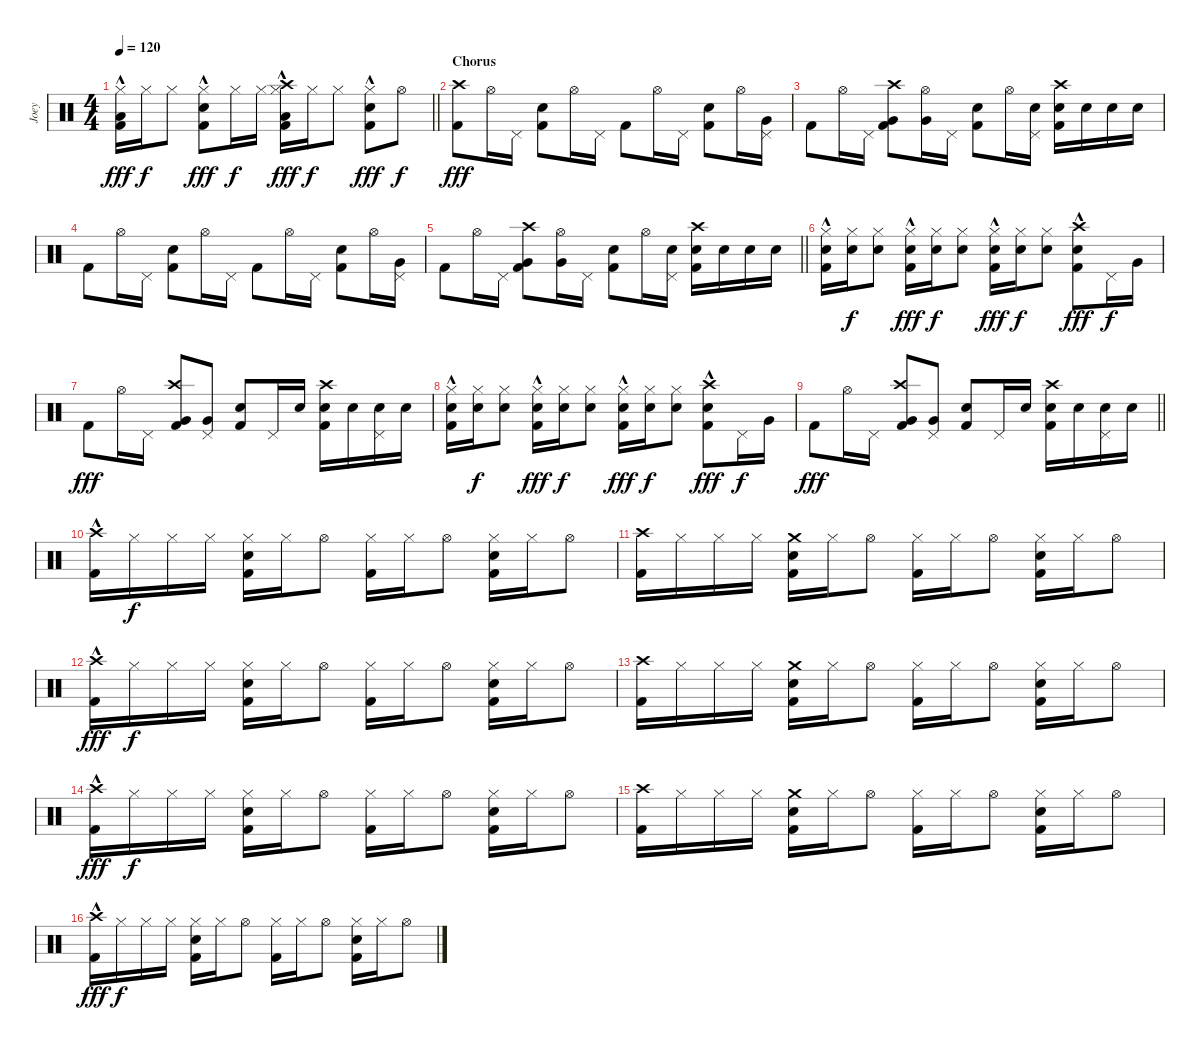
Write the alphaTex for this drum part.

\track ("Joey" "Joey") {instrument percussion}
\staff {score}
\articulation defaults
\ts (4 4)
\tempo 120
\clef neutral
\barLineRight lightlight
\ks c
("Hi-Hat (closed)"{hac} "Low Floor Tom (hit)" "Kick (hit) 2"{hac}).16{dy fff} "Hi-Hat (closed)".16{dy f} "Hi-Hat (closed)".8 ("Hi-Hat (closed)" "Electric Snare (hit)" "Kick (hit) 2"{hac}).8{dy fff} "Hi-Hat (closed)".16{dy f} "Hi-Hat (closed)".16 ("Crash high (hit)" "Hi-Hat (closed)" "Low Floor Tom (hit)" "Kick (hit) 2"{hac}).16{dy fff} "Hi-Hat (closed)".16{dy f} "Hi-Hat (closed)".8 ("Hi-Hat (closed)" "Electric Snare (hit)"{hac} "Kick (hit) 2"{hac}).8{dy fff} "Hi-Hat (open)".8{dy f} |
\section ("" "Chorus")
("Crash high (hit)" "Kick (hit) 2").8{dy fff} "Hi-Hat (open)".16 "Pedal Hi-Hat (hit)".16 ("Electric Snare (hit)" "Kick (hit) 2").8 "Hi-Hat (open)".16 "Pedal Hi-Hat (hit)".16 "Kick (hit) 2".8 "Hi-Hat (open)".16 "Pedal Hi-Hat (hit)".16 ("Electric Snare (hit)" "Kick (hit) 2").8 "Hi-Hat (open)".16 ("Pedal Hi-Hat (hit)" "Very Low Tom (hit)").16 |
"Kick (hit) 2".8 "Hi-Hat (open)".16 "Pedal Hi-Hat (hit)".16 ("Crash high (hit)" "Very Low Tom (hit)" "Kick (hit) 2").8 ("Hi-Hat (open)" "Very Low Tom (hit)").16 "Pedal Hi-Hat (hit)".16 ("Electric Snare (hit)" "Kick (hit) 2").8 "Hi-Hat (open)".16 ("Pedal Hi-Hat (hit)" "Electric Snare (hit)").16 ("Crash high (hit)" "Electric Snare (hit)" "Kick (hit) 2").16 "Electric Snare (hit)".16 "Electric Snare (hit)".16 "Electric Snare (hit)".16 |
"Kick (hit) 2".8 "Hi-Hat (open)".16 "Pedal Hi-Hat (hit)".16 ("Electric Snare (hit)" "Kick (hit) 2").8 "Hi-Hat (open)".16 "Pedal Hi-Hat (hit)".16 "Kick (hit) 2".8 "Hi-Hat (open)".16 "Pedal Hi-Hat (hit)".16 ("Electric Snare (hit)" "Kick (hit) 2").8 "Hi-Hat (open)".16 ("Pedal Hi-Hat (hit)" "Very Low Tom (hit)").16 |
\barLineRight lightlight "Kick (hit) 2".8 "Hi-Hat (open)".16 "Pedal Hi-Hat (hit)".16
("Crash high (hit)" "Very Low Tom (hit)" "Kick (hit) 2").8 ("Hi-Hat (open)" "Very Low Tom (hit)").16 "Pedal Hi-Hat (hit)".16 ("Electric Snare (hit)" "Kick (hit) 2").8 "Hi-Hat (open)".16 ("Pedal Hi-Hat (hit)" "Electric Snare (hit)").16 ("Crash high (hit)" "Electric Snare (hit)" "Kick (hit) 2").16 "Electric Snare (hit)".16 "Electric Snare (hit)".16 "Electric Snare (hit)".16 |
\section ("" "")
("Hi-Hat (closed)"{hac} "Electric Snare (hit)"{hac} "Kick (hit) 2").16 ("Hi-Hat (closed)" "Electric Snare (hit)").16{dy f} ("Hi-Hat (closed)" "Electric Snare (hit)").8 ("Hi-Hat (closed)"{hac} "Electric Snare (hit)"{hac} "Kick (hit) 2").16{dy fff} ("Hi-Hat (closed)" "Electric Snare (hit)").16{dy f} ("Hi-Hat (closed)" "Electric Snare (hit)").8 ("Hi-Hat (closed)"{hac} "Electric Snare (hit)"{hac} "Kick (hit) 2").16{dy fff} ("Hi-Hat (closed)" "Electric Snare (hit)").16{dy f} ("Hi-Hat (closed)" "Electric Snare (hit)").8 ("Crash high (hit)"{hac} "Electric Snare (hit)"{hac} "Kick (hit) 2").8{dy fff} "Pedal Hi-Hat (hit)".16{dy f} "Very Low Tom (hit)".16 |
"Kick (hit) 2".8{dy fff} "Hi-Hat (open)".16 "Pedal Hi-Hat (hit)".16 ("Crash high (hit)" "Very Low Tom (hit)" "Kick (hit) 2").8 ("Pedal Hi-Hat (hit)" "Very Low Tom (hit)").8 ("Electric Snare (hit)" "Kick (hit) 2").8 "Pedal Hi-Hat (hit)".16 "Electric Snare (hit)".16 ("Crash high (hit)" "Electric Snare (hit)" "Kick (hit) 2").16 "Electric Snare (hit)".16 ("Pedal Hi-Hat (hit)" "Electric Snare (hit)").16 "Electric Snare (hit)".16 |
("Hi-Hat (closed)"{hac} "Electric Snare (hit)"{hac} "Kick (hit) 2").16 ("Hi-Hat (closed)" "Electric Snare (hit)").16{dy f} ("Hi-Hat (closed)" "Electric Snare (hit)").8 ("Hi-Hat (closed)"{hac} "Electric Snare (hit)"{hac} "Kick (hit) 2").16{dy fff} ("Hi-Hat (closed)" "Electric Snare (hit)").16{dy f} ("Hi-Hat (closed)" "Electric Snare (hit)").8 ("Hi-Hat (closed)"{hac} "Electric Snare (hit)"{hac} "Kick (hit) 2").16{dy fff} ("Hi-Hat (closed)" "Electric Snare (hit)").16{dy f} ("Hi-Hat (closed)" "Electric Snare (hit)").8 ("Crash high (hit)"{hac} "Electric Snare (hit)"{hac} "Kick (hit) 2").8{dy fff} "Pedal Hi-Hat (hit)".16{dy f} "Very Low Tom (hit)".16 |
\barLineRight lightlight "Kick (hit) 2".8{dy fff} "Hi-Hat (open)".16 "Pedal Hi-Hat (hit)".16
("Crash high (hit)" "Very Low Tom (hit)" "Kick (hit) 2").8 ("Pedal Hi-Hat (hit)" "Very Low Tom (hit)").8 ("Electric Snare (hit)" "Kick (hit) 2").8 "Pedal Hi-Hat (hit)".16 "Electric Snare (hit)".16 ("Crash high (hit)" "Electric Snare (hit)" "Kick (hit) 2").16 "Electric Snare (hit)".16 ("Pedal Hi-Hat (hit)" "Electric Snare (hit)").16 "Electric Snare (hit)".16 |
\section ("" "")
("Crash high (hit)"{hac} "Kick (hit) 2").16 "Hi-Hat (closed)".16{dy f} "Hi-Hat (closed)".16 "Hi-Hat (closed)".16 ("Hi-Hat (closed)" "Electric Snare (hit)" "Kick (hit) 2").16 "Hi-Hat (closed)".16 "Hi-Hat (open)".8 ("Hi-Hat (closed)" "Kick (hit) 2").16 "Hi-Hat (closed)".16 "Hi-Hat (open)".8 ("Hi-Hat (closed)" "Electric Snare (hit)" "Kick (hit) 2").16 "Hi-Hat (closed)".16 "Hi-Hat (open)".8 |
("Crash high (hit)" "Kick (hit) 2").16 "Hi-Hat (closed)".16 "Hi-Hat (closed)".16 "Hi-Hat (closed)".16 ("Crash medium (hit)" "Electric Snare (hit)" "Kick (hit) 2").16 "Hi-Hat (closed)".16 "Hi-Hat (open)".8 ("Hi-Hat (closed)" "Kick (hit) 2").16 "Hi-Hat (closed)".16 "Hi-Hat (open)".8 ("Hi-Hat (closed)" "Electric Snare (hit)" "Kick (hit) 2").16 "Hi-Hat (closed)".16 "Hi-Hat (open)".8 |
("Crash high (hit)"{hac} "Kick (hit) 2").16{dy fff} "Hi-Hat (closed)".16{dy f} "Hi-Hat (closed)".16 "Hi-Hat (closed)".16 ("Hi-Hat (closed)" "Electric Snare (hit)" "Kick (hit) 2").16 "Hi-Hat (closed)".16 "Hi-Hat (open)".8 ("Hi-Hat (closed)" "Kick (hit) 2").16 "Hi-Hat (closed)".16 "Hi-Hat (open)".8 ("Hi-Hat (closed)" "Electric Snare (hit)" "Kick (hit) 2").16 "Hi-Hat (closed)".16 "Hi-Hat (open)".8 |
("Crash high (hit)" "Kick (hit) 2").16 "Hi-Hat (closed)".16 "Hi-Hat (closed)".16 "Hi-Hat (closed)".16 ("Crash medium (hit)" "Electric Snare (hit)" "Kick (hit) 2").16 "Hi-Hat (closed)".16 "Hi-Hat (open)".8 ("Hi-Hat (closed)" "Kick (hit) 2").16 "Hi-Hat (closed)".16 "Hi-Hat (open)".8 ("Hi-Hat (closed)" "Electric Snare (hit)" "Kick (hit) 2").16 "Hi-Hat (closed)".16 "Hi-Hat (open)".8 |
("Crash high (hit)"{hac} "Kick (hit) 2").16{dy fff} "Hi-Hat (closed)".16{dy f} "Hi-Hat (closed)".16 "Hi-Hat (closed)".16 ("Hi-Hat (closed)" "Electric Snare (hit)" "Kick (hit) 2").16 "Hi-Hat (closed)".16 "Hi-Hat (open)".8 ("Hi-Hat (closed)" "Kick (hit) 2").16 "Hi-Hat (closed)".16 "Hi-Hat (open)".8 ("Hi-Hat (closed)" "Electric Snare (hit)" "Kick (hit) 2").16 "Hi-Hat (closed)".16 "Hi-Hat (open)".8 |
("Crash high (hit)" "Kick (hit) 2").16 "Hi-Hat (closed)".16 "Hi-Hat (closed)".16 "Hi-Hat (closed)".16 ("Crash medium (hit)" "Electric Snare (hit)" "Kick (hit) 2").16 "Hi-Hat (closed)".16 "Hi-Hat (open)".8 ("Hi-Hat (closed)" "Kick (hit) 2").16 "Hi-Hat (closed)".16 "Hi-Hat (open)".8 ("Hi-Hat (closed)" "Electric Snare (hit)" "Kick (hit) 2").16 "Hi-Hat (closed)".16 "Hi-Hat (open)".8 |
("Crash high (hit)"{hac} "Kick (hit) 2").16{dy fff} "Hi-Hat (closed)".16{dy f} "Hi-Hat (closed)".16 "Hi-Hat (closed)".16 ("Hi-Hat (closed)" "Electric Snare (hit)" "Kick (hit) 2").16 "Hi-Hat (closed)".16 "Hi-Hat (open)".8 ("Hi-Hat (closed)" "Kick (hit) 2").16 "Hi-Hat (closed)".16 "Hi-Hat (open)".8 ("Hi-Hat (closed)" "Electric Snare (hit)" "Kick (hit) 2").16 "Hi-Hat (closed)".16 "Hi-Hat (open)".8
